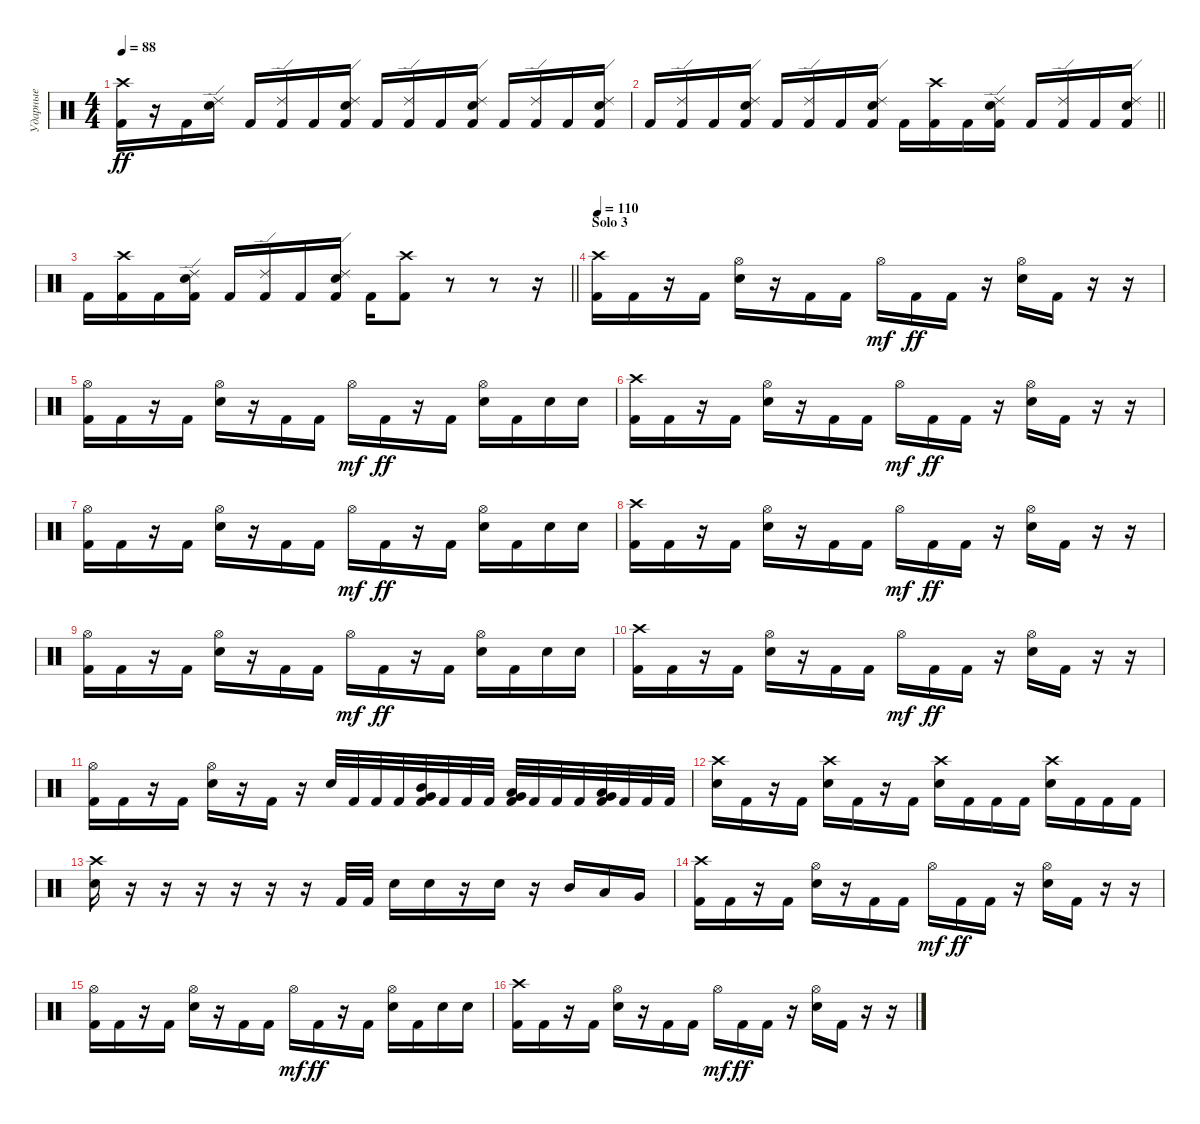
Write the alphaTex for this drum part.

\track ("Ударные" "Ударные") {instrument percussion}
\staff {score}
\articulation defaults
\ts (4 4)
\tempo 88
\clef neutral
\ks c
("Crash high (hit)" "Kick (hit) 2").16{dy ff} r.16 "Kick (hit) 2".16 ("Ride (edge) 2" "Snare (hit) 2").16 "Kick (hit) 2".16 ("Ride (edge) 2" "Kick (hit) 2").16 "Kick (hit) 2".16 ("Ride (edge) 2" "Snare (hit) 2" "Kick (hit) 2").16 "Kick (hit) 2".16 ("Ride (edge) 2" "Kick (hit) 2").16 "Kick (hit) 2".16 ("Ride (edge) 2" "Snare (hit) 2" "Kick (hit) 2").16 "Kick (hit) 2".16 ("Ride (edge) 2" "Kick (hit) 2").16 "Kick (hit) 2".16 ("Ride (edge) 2" "Snare (hit) 2" "Kick (hit) 2").16 |
\barLineRight lightlight "Kick (hit) 2".16
("Ride (edge) 2" "Kick (hit) 2").16 "Kick (hit) 2".16 ("Ride (edge) 2" "Snare (hit) 2" "Kick (hit) 2").16 "Kick (hit) 2".16 ("Ride (edge) 2" "Kick (hit) 2").16 "Kick (hit) 2".16 ("Ride (edge) 2" "Snare (hit) 2" "Kick (hit) 2").16 "Kick (hit) 2".16 ("Crash high (hit)" "Kick (hit) 2").16 "Kick (hit) 2".16 ("Ride (edge) 2" "Snare (hit) 2" "Kick (hit) 2").16 "Kick (hit) 2".16 ("Ride (edge) 2" "Kick (hit) 2").16 "Kick (hit) 2".16 ("Ride (edge) 2" "Snare (hit) 2" "Kick (hit) 2").16 |
\barLineRight lightlight "Kick (hit) 2".16
("Crash high (hit)" "Kick (hit) 2").16 "Kick (hit) 2".16 ("Ride (edge) 2" "Snare (hit) 2" "Kick (hit) 2").16 "Kick (hit) 2".16 ("Ride (edge) 2" "Kick (hit) 2").16 "Kick (hit) 2".16 ("Ride (edge) 2" "Snare (hit) 2" "Kick (hit) 2").16 "Kick (hit) 2".16 ("Crash high (hit)" "Kick (hit) 2").8 r.8 r.8 r.16 |
\section ("" "Solo 3")
\tempo 110
("Crash high (hit)" "Kick (hit) 2").16 "Kick (hit) 2".16 r.16 "Kick (hit) 2".16 ("Hi-Hat (open)" "Snare (hit) 2").16 r.16 "Kick (hit) 2".16 "Kick (hit) 2".16 "Hi-Hat (open)".16{dy mf} "Kick (hit) 2".16{dy ff} "Kick (hit) 2".16 r.16 ("Hi-Hat (open)" "Snare (hit) 2").16 "Kick (hit) 2".16 r.16 r.16 |
("Hi-Hat (open)" "Kick (hit) 2").16 "Kick (hit) 2".16 r.16 "Kick (hit) 2".16 ("Hi-Hat (open)" "Snare (hit) 2").16 r.16 "Kick (hit) 2".16 "Kick (hit) 2".16 "Hi-Hat (open)".16{dy mf} "Kick (hit) 2".16{dy ff} r.16 "Kick (hit) 2".16 ("Hi-Hat (open)" "Snare (hit) 2").16 "Kick (hit) 2".16 "Snare (hit) 2".16 "Snare (hit) 2".16 |
("Crash high (hit)" "Kick (hit) 2").16 "Kick (hit) 2".16 r.16 "Kick (hit) 2".16 ("Hi-Hat (open)" "Snare (hit) 2").16 r.16 "Kick (hit) 2".16 "Kick (hit) 2".16 "Hi-Hat (open)".16{dy mf} "Kick (hit) 2".16{dy ff} "Kick (hit) 2".16 r.16 ("Hi-Hat (open)" "Snare (hit) 2").16 "Kick (hit) 2".16 r.16 r.16 |
("Hi-Hat (open)" "Kick (hit) 2").16 "Kick (hit) 2".16 r.16 "Kick (hit) 2".16 ("Hi-Hat (open)" "Snare (hit) 2").16 r.16 "Kick (hit) 2".16 "Kick (hit) 2".16 "Hi-Hat (open)".16{dy mf} "Kick (hit) 2".16{dy ff} r.16 "Kick (hit) 2".16 ("Hi-Hat (open)" "Snare (hit) 2").16 "Kick (hit) 2".16 "Snare (hit) 2".16 "Snare (hit) 2".16 |
("Crash high (hit)" "Kick (hit) 2").16 "Kick (hit) 2".16 r.16 "Kick (hit) 2".16 ("Hi-Hat (open)" "Snare (hit) 2").16 r.16 "Kick (hit) 2".16 "Kick (hit) 2".16 "Hi-Hat (open)".16{dy mf} "Kick (hit) 2".16{dy ff} "Kick (hit) 2".16 r.16 ("Hi-Hat (open)" "Snare (hit) 2").16 "Kick (hit) 2".16 r.16 r.16 |
("Hi-Hat (open)" "Kick (hit) 2").16 "Kick (hit) 2".16 r.16 "Kick (hit) 2".16 ("Hi-Hat (open)" "Snare (hit) 2").16 r.16 "Kick (hit) 2".16 "Kick (hit) 2".16 "Hi-Hat (open)".16{dy mf} "Kick (hit) 2".16{dy ff} r.16 "Kick (hit) 2".16 ("Hi-Hat (open)" "Snare (hit) 2").16 "Kick (hit) 2".16 "Snare (hit) 2".16 "Snare (hit) 2".16 |
("Crash high (hit)" "Kick (hit) 2").16 "Kick (hit) 2".16 r.16 "Kick (hit) 2".16 ("Hi-Hat (open)" "Snare (hit) 2").16 r.16 "Kick (hit) 2".16 "Kick (hit) 2".16 "Hi-Hat (open)".16{dy mf} "Kick (hit) 2".16{dy ff} "Kick (hit) 2".16 r.16 ("Hi-Hat (open)" "Snare (hit) 2").16 "Kick (hit) 2".16 r.16 r.16 |
("Hi-Hat (open)" "Kick (hit) 2").16 "Kick (hit) 2".16 r.16 "Kick (hit) 2".16 ("Hi-Hat (open)" "Snare (hit) 2").16 r.16 "Kick (hit) 2".16 r.16 "Snare (hit) 2".32 "Kick (hit) 2".32 "Kick (hit) 2".32 "Kick (hit) 2".32 ("Mid Tom (hit)" "Very Low Tom (hit)" "Kick (hit) 2").32 "Kick (hit) 2".32 "Kick (hit) 2".32 "Kick (hit) 2".32 ("Low Tom (hit)" "Very Low Tom (hit)" "Kick (hit) 2").32 "Kick (hit) 2".32 "Kick (hit) 2".32 "Kick (hit) 2".32 ("Very Low Tom (hit)" "Low Floor Tom (hit)" "Kick (hit) 2").32 "Kick (hit) 2".32 "Kick (hit) 2".32 "Kick (hit) 2".32 |
("Crash high (hit)" "Snare (hit) 2").16 "Kick (hit) 2".16 r.16 "Kick (hit) 2".16 ("Crash high (hit)" "Snare (hit) 2").16 "Kick (hit) 2".16 r.16 "Kick (hit) 2".16 ("Crash high (hit)" "Snare (hit) 2").16 "Kick (hit) 2".16 "Kick (hit) 2".16 "Kick (hit) 2".16 ("Crash high (hit)" "Snare (hit) 2").16 "Kick (hit) 2".16 "Kick (hit) 2".16 "Kick (hit) 2".16 |
("Crash high (hit)" "Snare (hit) 2").16 r.16 r.16 r.16 r.16 r.16 r.16 "Kick (hit) 2".32 "Kick (hit) 2".32 "Snare (hit) 2".16 "Snare (hit) 2".16 r.16 "Snare (hit) 2".16 r.16 "Mid Tom (hit)".16 "Low Tom (hit)".16 "Very Low Tom (hit)".16 |
("Crash high (hit)" "Kick (hit) 2").16 "Kick (hit) 2".16 r.16 "Kick (hit) 2".16 ("Hi-Hat (open)" "Snare (hit) 2").16 r.16 "Kick (hit) 2".16 "Kick (hit) 2".16 "Hi-Hat (open)".16{dy mf} "Kick (hit) 2".16{dy ff} "Kick (hit) 2".16 r.16 ("Hi-Hat (open)" "Snare (hit) 2").16 "Kick (hit) 2".16 r.16 r.16 |
("Hi-Hat (open)" "Kick (hit) 2").16 "Kick (hit) 2".16 r.16 "Kick (hit) 2".16 ("Hi-Hat (open)" "Snare (hit) 2").16 r.16 "Kick (hit) 2".16 "Kick (hit) 2".16 "Hi-Hat (open)".16{dy mf} "Kick (hit) 2".16{dy ff} r.16 "Kick (hit) 2".16 ("Hi-Hat (open)" "Snare (hit) 2").16 "Kick (hit) 2".16 "Snare (hit) 2".16 "Snare (hit) 2".16 |
("Crash high (hit)" "Kick (hit) 2").16 "Kick (hit) 2".16 r.16 "Kick (hit) 2".16 ("Hi-Hat (open)" "Snare (hit) 2").16 r.16 "Kick (hit) 2".16 "Kick (hit) 2".16 "Hi-Hat (open)".16{dy mf} "Kick (hit) 2".16{dy ff} "Kick (hit) 2".16 r.16 ("Hi-Hat (open)" "Snare (hit) 2").16 "Kick (hit) 2".16 r.16 r.16
